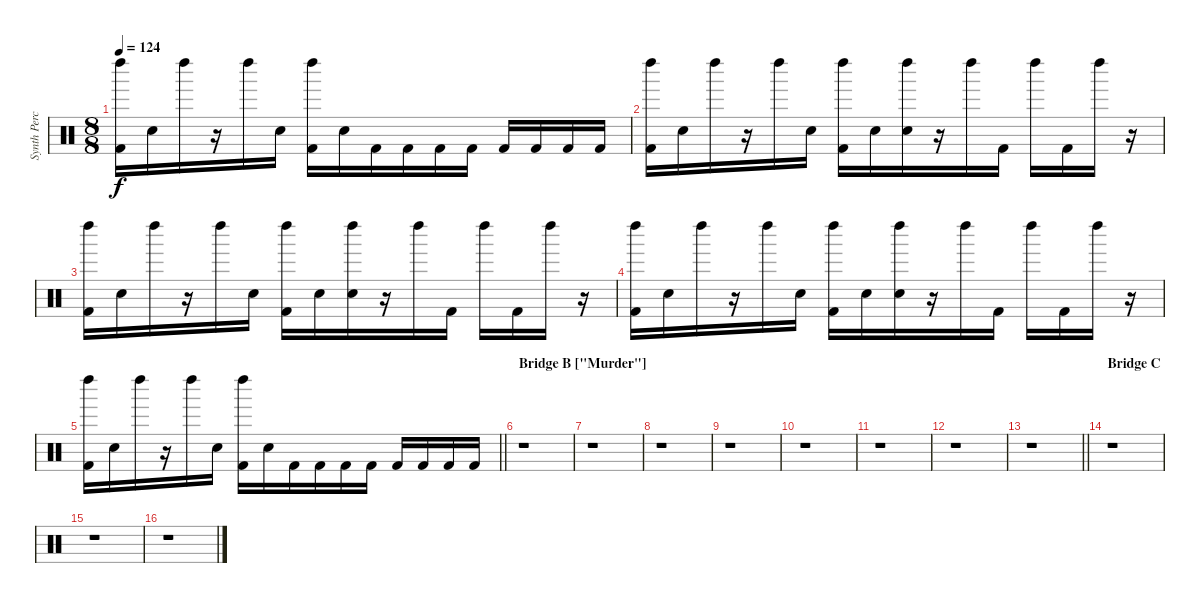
\track ("Synth Percussion" "Synth Perc") {instrument percussion}
\staff {score}
\articulation defaults
\ts (8 8)
\tempo 124
\clef neutral
\ks c
("Left Maraca (hit)" "Kick (hit) 2").16{dy f} "Hand Clap (hit)".16 "Left Maraca (hit)".16 r.16 "Left Maraca (hit)".16 "Hand Clap (hit)".16 ("Left Maraca (hit)" "Kick (hit) 2").16 "Hand Clap (hit)".16 "Kick (hit) 2".16 "Kick (hit) 2".16 "Kick (hit) 2".16 "Kick (hit) 2".16 "Kick (hit) 2".16 "Kick (hit) 2".16 "Kick (hit) 2".16 "Kick (hit) 2".16 |
("Left Maraca (hit)" "Kick (hit) 2").16 "Hand Clap (hit)".16 "Left Maraca (hit)".16 r.16 "Left Maraca (hit)".16 "Hand Clap (hit)".16 ("Left Maraca (hit)" "Kick (hit) 2").16 "Hand Clap (hit)".16 ("Snare (hit) 2" "Left Maraca (hit)").16 r.16 "Left Maraca (hit)".16 "Kick (hit) 2".16 "Left Maraca (hit)".16 "Kick (hit) 2".16 "Left Maraca (hit)".16 r.16 |
("Left Maraca (hit)" "Kick (hit) 2").16 "Hand Clap (hit)".16 "Left Maraca (hit)".16 r.16 "Left Maraca (hit)".16 "Hand Clap (hit)".16 ("Left Maraca (hit)" "Kick (hit) 2").16 "Hand Clap (hit)".16 ("Snare (hit) 2" "Left Maraca (hit)").16 r.16 "Left Maraca (hit)".16 "Kick (hit) 2".16 "Left Maraca (hit)".16 "Kick (hit) 2".16 "Left Maraca (hit)".16 r.16 |
("Left Maraca (hit)" "Kick (hit) 2").16 "Hand Clap (hit)".16 "Left Maraca (hit)".16 r.16 "Left Maraca (hit)".16 "Hand Clap (hit)".16 ("Left Maraca (hit)" "Kick (hit) 2").16 "Hand Clap (hit)".16 ("Snare (hit) 2" "Left Maraca (hit)").16 r.16 "Left Maraca (hit)".16 "Kick (hit) 2".16 "Left Maraca (hit)".16 "Kick (hit) 2".16 "Left Maraca (hit)".16 r.16 |
\barLineRight lightlight
("Left Maraca (hit)" "Kick (hit) 2").16 "Hand Clap (hit)".16 "Left Maraca (hit)".16 r.16 "Left Maraca (hit)".16 "Hand Clap (hit)".16 ("Left Maraca (hit)" "Kick (hit) 2").16 "Hand Clap (hit)".16 "Kick (hit) 2".16 "Kick (hit) 2".16 "Kick (hit) 2".16 "Kick (hit) 2".16 "Kick (hit) 2".16 "Kick (hit) 2".16 "Kick (hit) 2".16 "Kick (hit) 2".16 |
\section ("" "Bridge B [\"Murder\"]")
r.1 |
r.1 |
r.1 |
r.1 |
r.1 |
r.1 |
r.1 |
\barLineRight lightlight
r.1 |
\section ("" "Bridge C")
r.1 |
r.1 |
r.1
